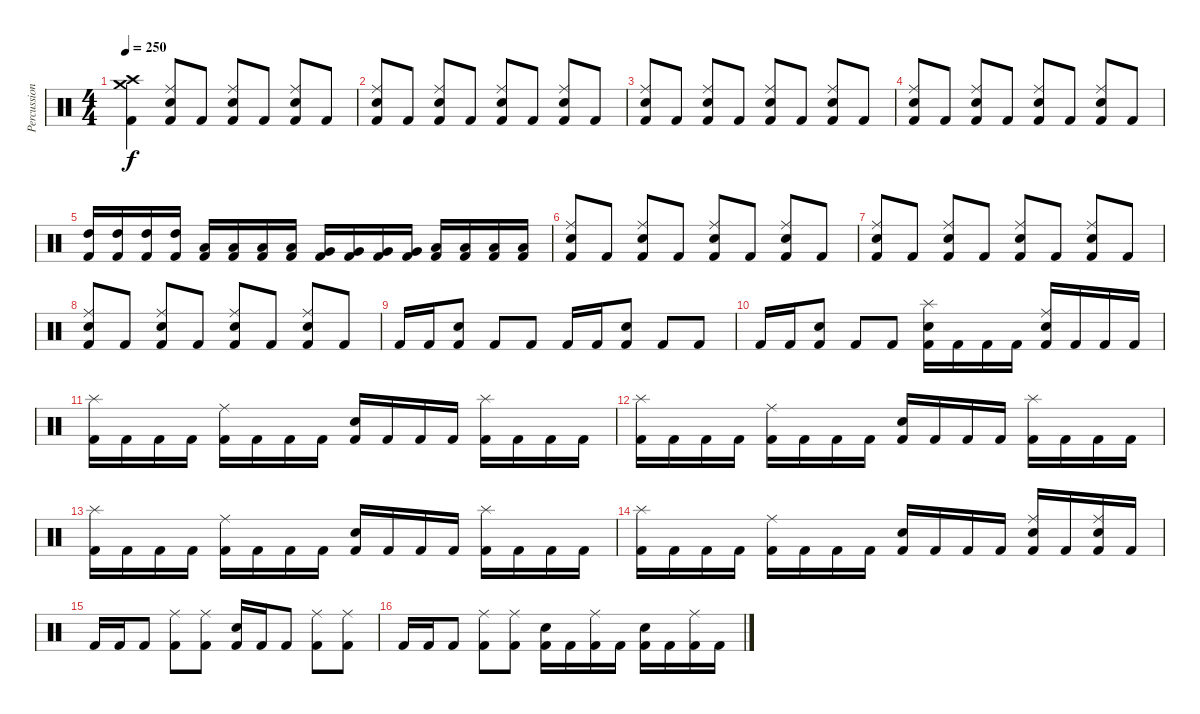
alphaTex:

\track ("Percussion" "Percussion") {instrument percussion}
\staff {score}
\articulation defaults
\ts (4 4)
\tempo 250
\clef neutral
\ks c
("Crash high (hit)" "Crash medium (hit)" "Kick (hit) 2").4{dy f} ("Ride (middle)" "Electric Snare (hit)" "Kick (hit) 2").8 "Kick (hit) 2".8 ("Ride (middle)" "Electric Snare (hit)" "Kick (hit) 2").8 "Kick (hit) 2".8 ("Ride (middle)" "Electric Snare (hit)" "Kick (hit) 2").8 "Kick (hit) 2".8 |
("Ride (middle)" "Electric Snare (hit)" "Kick (hit) 2").8 "Kick (hit) 2".8 ("Ride (middle)" "Electric Snare (hit)" "Kick (hit) 2").8 "Kick (hit) 2".8 ("Ride (middle)" "Electric Snare (hit)" "Kick (hit) 2").8 "Kick (hit) 2".8 ("Ride (middle)" "Electric Snare (hit)" "Kick (hit) 2").8 "Kick (hit) 2".8 |
("Ride (middle)" "Electric Snare (hit)" "Kick (hit) 2").8 "Kick (hit) 2".8 ("Ride (middle)" "Electric Snare (hit)" "Kick (hit) 2").8 "Kick (hit) 2".8 ("Ride (middle)" "Electric Snare (hit)" "Kick (hit) 2").8 "Kick (hit) 2".8 ("Ride (middle)" "Electric Snare (hit)" "Kick (hit) 2").8 "Kick (hit) 2".8 |
("Ride (middle)" "Electric Snare (hit)" "Kick (hit) 2").8 "Kick (hit) 2".8 ("Ride (middle)" "Electric Snare (hit)" "Kick (hit) 2").8 "Kick (hit) 2".8 ("Ride (middle)" "Electric Snare (hit)" "Kick (hit) 2").8 "Kick (hit) 2".8 ("Ride (middle)" "Electric Snare (hit)" "Kick (hit) 2").8 "Kick (hit) 2".8 |
("High Tom (hit)" "Kick (hit) 2").16 ("High Tom (hit)" "Kick (hit) 2").16 ("High Tom (hit)" "Kick (hit) 2").16 ("High Tom (hit)" "Kick (hit) 2").16 ("Low Tom (hit)" "Kick (hit) 2").16 ("Low Tom (hit)" "Kick (hit) 2").16 ("Low Tom (hit)" "Kick (hit) 2").16 ("Low Tom (hit)" "Kick (hit) 2").16 ("Very Low Tom (hit)" "Kick (hit) 2").16 ("Very Low Tom (hit)" "Kick (hit) 2").16 ("Very Low Tom (hit)" "Kick (hit) 2").16 ("Very Low Tom (hit)" "Kick (hit) 2").16 ("Low Floor Tom (hit)" "Kick (hit) 2").16 ("Low Floor Tom (hit)" "Kick (hit) 2").16 ("Low Floor Tom (hit)" "Kick (hit) 2").16 ("Low Floor Tom (hit)" "Kick (hit) 2").16 |
("Ride (middle)" "Electric Snare (hit)" "Kick (hit) 2").8 "Kick (hit) 2".8 ("Ride (middle)" "Electric Snare (hit)" "Kick (hit) 2").8 "Kick (hit) 2".8 ("Ride (middle)" "Electric Snare (hit)" "Kick (hit) 2").8 "Kick (hit) 2".8 ("Ride (middle)" "Electric Snare (hit)" "Kick (hit) 2").8 "Kick (hit) 2".8 |
("Ride (middle)" "Electric Snare (hit)" "Kick (hit) 2").8 "Kick (hit) 2".8 ("Ride (middle)" "Electric Snare (hit)" "Kick (hit) 2").8 "Kick (hit) 2".8 ("Ride (middle)" "Electric Snare (hit)" "Kick (hit) 2").8 "Kick (hit) 2".8 ("Ride (middle)" "Electric Snare (hit)" "Kick (hit) 2").8 "Kick (hit) 2".8 |
("Ride (middle)" "Electric Snare (hit)" "Kick (hit) 2").8 "Kick (hit) 2".8 ("Ride (middle)" "Electric Snare (hit)" "Kick (hit) 2").8 "Kick (hit) 2".8 ("Ride (middle)" "Electric Snare (hit)" "Kick (hit) 2").8 "Kick (hit) 2".8 ("Ride (middle)" "Electric Snare (hit)" "Kick (hit) 2").8 "Kick (hit) 2".8 |
"Kick (hit) 2".16 "Kick (hit) 2".16 ("Electric Snare (hit)" "Kick (hit) 2").8 "Kick (hit) 2".8 "Kick (hit) 2".8 "Kick (hit) 2".16 "Kick (hit) 2".16 ("Electric Snare (hit)" "Kick (hit) 2").8 "Kick (hit) 2".8 "Kick (hit) 2".8 |
"Kick (hit) 2".16 "Kick (hit) 2".16 ("Electric Snare (hit)" "Kick (hit) 2").8 "Kick (hit) 2".8 "Kick (hit) 2".8 ("Splash (hit)" "Electric Snare (hit)" "Kick (hit) 2").16 "Kick (hit) 2".16 "Kick (hit) 2".16 "Kick (hit) 2".16 ("Ride (middle)" "Electric Snare (hit)" "Kick (hit) 2").16 "Kick (hit) 2".16 "Kick (hit) 2".16 "Kick (hit) 2".16 |
("Splash (hit)" "Kick (hit) 2").16 "Kick (hit) 2".16 "Kick (hit) 2".16 "Kick (hit) 2".16 ("Ride (middle)" "Kick (hit) 2").16 "Kick (hit) 2".16 "Kick (hit) 2".16 "Kick (hit) 2".16 ("Electric Snare (hit)" "Kick (hit) 2").16 "Kick (hit) 2".16 "Kick (hit) 2".16 "Kick (hit) 2".16 ("Splash (hit)" "Kick (hit) 2").16 "Kick (hit) 2".16 "Kick (hit) 2".16 "Kick (hit) 2".16 |
("Splash (hit)" "Kick (hit) 2").16 "Kick (hit) 2".16 "Kick (hit) 2".16 "Kick (hit) 2".16 ("Ride (middle)" "Kick (hit) 2").16 "Kick (hit) 2".16 "Kick (hit) 2".16 "Kick (hit) 2".16 ("Electric Snare (hit)" "Kick (hit) 2").16 "Kick (hit) 2".16 "Kick (hit) 2".16 "Kick (hit) 2".16 ("Splash (hit)" "Kick (hit) 2").16 "Kick (hit) 2".16 "Kick (hit) 2".16 "Kick (hit) 2".16 |
("Splash (hit)" "Kick (hit) 2").16 "Kick (hit) 2".16 "Kick (hit) 2".16 "Kick (hit) 2".16 ("Ride (middle)" "Kick (hit) 2").16 "Kick (hit) 2".16 "Kick (hit) 2".16 "Kick (hit) 2".16 ("Electric Snare (hit)" "Kick (hit) 2").16 "Kick (hit) 2".16 "Kick (hit) 2".16 "Kick (hit) 2".16 ("Splash (hit)" "Kick (hit) 2").16 "Kick (hit) 2".16 "Kick (hit) 2".16 "Kick (hit) 2".16 |
("Splash (hit)" "Kick (hit) 2").16 "Kick (hit) 2".16 "Kick (hit) 2".16 "Kick (hit) 2".16 ("Ride (middle)" "Kick (hit) 2").16 "Kick (hit) 2".16 "Kick (hit) 2".16 "Kick (hit) 2".16 ("Electric Snare (hit)" "Kick (hit) 2").16 "Kick (hit) 2".16 "Kick (hit) 2".16 "Kick (hit) 2".16 ("Ride (middle)" "Electric Snare (hit)" "Kick (hit) 2").16 "Kick (hit) 2".16 ("Ride (middle)" "Electric Snare (hit)" "Kick (hit) 2").16 "Kick (hit) 2".16 |
"Kick (hit) 2".16 "Kick (hit) 2".16 "Kick (hit) 2".8 ("Ride (middle)" "Kick (hit) 2").8 ("Ride (middle)" "Kick (hit) 2").8 ("Electric Snare (hit)" "Kick (hit) 2").16 "Kick (hit) 2".16 "Kick (hit) 2".8 ("Ride (middle)" "Kick (hit) 2").8 ("Ride (middle)" "Kick (hit) 2").8 |
"Kick (hit) 2".16 "Kick (hit) 2".16 "Kick (hit) 2".8 ("Ride (middle)" "Kick (hit) 2").8 ("Ride (middle)" "Kick (hit) 2").8 ("Electric Snare (hit)" "Kick (hit) 2").16 "Kick (hit) 2".16 ("Ride (middle)" "Kick (hit) 2").16 "Kick (hit) 2".16 ("Electric Snare (hit)" "Kick (hit) 2").16 "Kick (hit) 2".16 ("Ride (middle)" "Kick (hit) 2").16 "Kick (hit) 2".16
